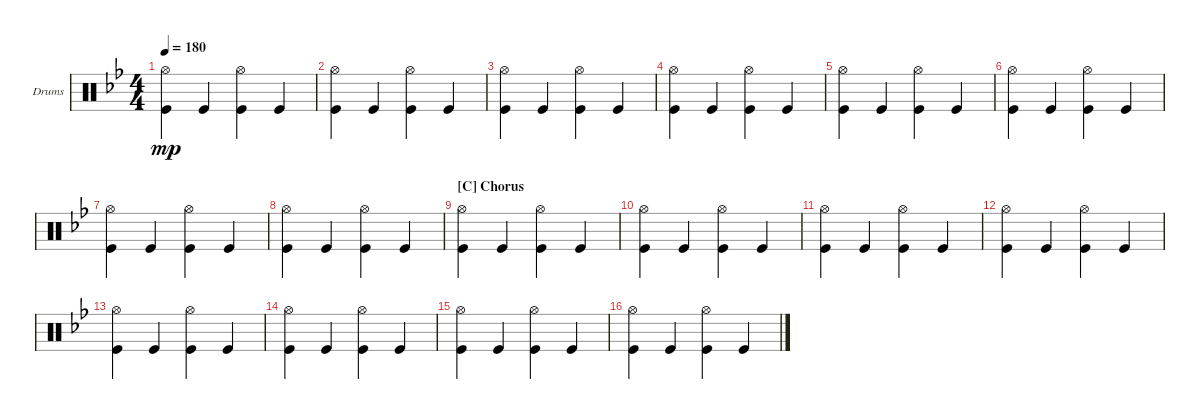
\defaultSystemsLayout 4
\bracketExtendMode groupsimilarinstruments
\firstSystemTrackNameOrientation horizontal
\otherSystemsTrackNameOrientation horizontal
\track ("Drumkit" "Drums") {instrument percussion}
\staff {score}
\articulation defaults
\ts (4 4)
\tempo 180
\clef neutral
\ks bb
("Hi-Hat (open)" "Kick (hit)").4{dy mp} "Kick (hit)".4 ("Kick (hit)" "Hi-Hat (open)").4 "Kick (hit)".4 |
("Hi-Hat (open)" "Kick (hit)").4 "Kick (hit)".4 ("Kick (hit)" "Hi-Hat (open)").4 "Kick (hit)".4 |
("Hi-Hat (open)" "Kick (hit)").4 "Kick (hit)".4 ("Kick (hit)" "Hi-Hat (open)").4 "Kick (hit)".4 |
("Hi-Hat (open)" "Kick (hit)").4 "Kick (hit)".4 ("Kick (hit)" "Hi-Hat (open)").4 "Kick (hit)".4 |
("Hi-Hat (open)" "Kick (hit)").4 "Kick (hit)".4 ("Kick (hit)" "Hi-Hat (open)").4 "Kick (hit)".4 |
("Hi-Hat (open)" "Kick (hit)").4 "Kick (hit)".4 ("Kick (hit)" "Hi-Hat (open)").4 "Kick (hit)".4 |
("Hi-Hat (open)" "Kick (hit)").4 "Kick (hit)".4 ("Kick (hit)" "Hi-Hat (open)").4 "Kick (hit)".4 |
("Hi-Hat (open)" "Kick (hit)").4 "Kick (hit)".4 ("Kick (hit)" "Hi-Hat (open)").4 "Kick (hit)".4 |
\section ("C" "Chorus")
("Hi-Hat (open)" "Kick (hit)").4 "Kick (hit)".4 ("Kick (hit)" "Hi-Hat (open)").4 "Kick (hit)".4 |
("Hi-Hat (open)" "Kick (hit)").4 "Kick (hit)".4 ("Kick (hit)" "Hi-Hat (open)").4 "Kick (hit)".4 |
("Hi-Hat (open)" "Kick (hit)").4 "Kick (hit)".4 ("Kick (hit)" "Hi-Hat (open)").4 "Kick (hit)".4 |
("Hi-Hat (open)" "Kick (hit)").4 "Kick (hit)".4 ("Kick (hit)" "Hi-Hat (open)").4 "Kick (hit)".4 |
("Hi-Hat (open)" "Kick (hit)").4 "Kick (hit)".4 ("Kick (hit)" "Hi-Hat (open)").4 "Kick (hit)".4 |
("Hi-Hat (open)" "Kick (hit)").4 "Kick (hit)".4 ("Kick (hit)" "Hi-Hat (open)").4 "Kick (hit)".4 |
("Hi-Hat (open)" "Kick (hit)").4 "Kick (hit)".4 ("Kick (hit)" "Hi-Hat (open)").4 "Kick (hit)".4 |
("Hi-Hat (open)" "Kick (hit)").4 "Kick (hit)".4 ("Kick (hit)" "Hi-Hat (open)").4 "Kick (hit)".4
